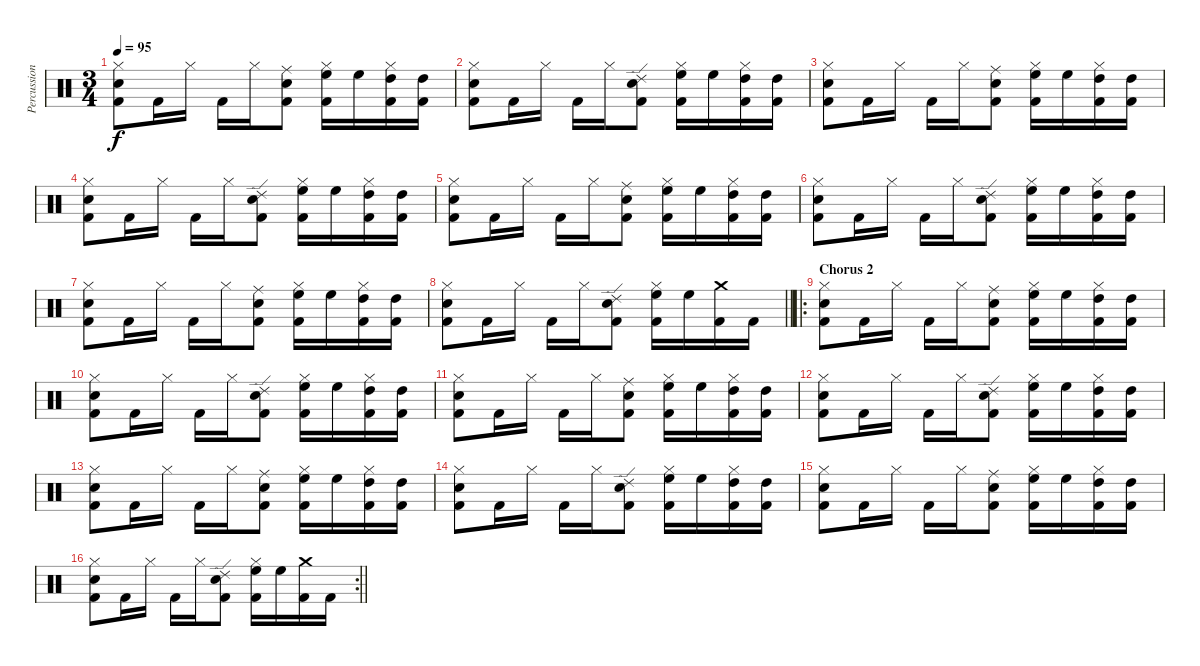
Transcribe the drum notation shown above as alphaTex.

\track ("Percussion" "Percussion") {instrument percussion}
\staff {score}
\articulation defaults
\ts (3 4)
\tempo 95
\clef neutral
\ks c
("Hi-Hat (closed)" "Snare (hit) 2" "Kick (hit) 2").8{dy f} "Kick (hit) 2".16 "Hi-Hat (closed)".16 "Kick (hit) 2".16 "Hi-Hat (closed)".16 ("Ride (middle)" "Snare (hit) 2" "Kick (hit) 2").8 ("Hi-Hat (closed)" "High Floor Tom (hit)" "Kick (hit) 2").16 "High Floor Tom (hit)".16 ("Hi-Hat (closed)" "High Tom (hit)" "Kick (hit) 2").16 ("High Tom (hit)" "Kick (hit) 2").16 |
("Hi-Hat (closed)" "Snare (hit) 2" "Kick (hit) 2").8 "Kick (hit) 2".16 "Hi-Hat (closed)".16 "Kick (hit) 2".16 "Hi-Hat (closed)".16 ("Ride (edge) 2" "Snare (hit) 2" "Kick (hit) 2").8 ("Hi-Hat (closed)" "High Floor Tom (hit)" "Kick (hit) 2").16 "High Floor Tom (hit)".16 ("Hi-Hat (closed)" "High Tom (hit)" "Kick (hit) 2").16 ("High Tom (hit)" "Kick (hit) 2").16 |
("Hi-Hat (closed)" "Snare (hit) 2" "Kick (hit) 2").8 "Kick (hit) 2".16 "Hi-Hat (closed)".16 "Kick (hit) 2".16 "Hi-Hat (closed)".16 ("Ride (middle)" "Snare (hit) 2" "Kick (hit) 2").8 ("Hi-Hat (closed)" "High Floor Tom (hit)" "Kick (hit) 2").16 "High Floor Tom (hit)".16 ("Hi-Hat (closed)" "High Tom (hit)" "Kick (hit) 2").16 ("High Tom (hit)" "Kick (hit) 2").16 |
("Hi-Hat (closed)" "Snare (hit) 2" "Kick (hit) 2").8 "Kick (hit) 2".16 "Hi-Hat (closed)".16 "Kick (hit) 2".16 "Hi-Hat (closed)".16 ("Ride (edge) 2" "Snare (hit) 2" "Kick (hit) 2").8 ("Hi-Hat (closed)" "High Floor Tom (hit)" "Kick (hit) 2").16 "High Floor Tom (hit)".16 ("Hi-Hat (closed)" "High Tom (hit)" "Kick (hit) 2").16 ("High Tom (hit)" "Kick (hit) 2").16 |
("Hi-Hat (closed)" "Snare (hit) 2" "Kick (hit) 2").8 "Kick (hit) 2".16 "Hi-Hat (closed)".16 "Kick (hit) 2".16 "Hi-Hat (closed)".16 ("Ride (middle)" "Snare (hit) 2" "Kick (hit) 2").8 ("Hi-Hat (closed)" "High Floor Tom (hit)" "Kick (hit) 2").16 "High Floor Tom (hit)".16 ("Hi-Hat (closed)" "High Tom (hit)" "Kick (hit) 2").16 ("High Tom (hit)" "Kick (hit) 2").16 |
("Hi-Hat (closed)" "Snare (hit) 2" "Kick (hit) 2").8 "Kick (hit) 2".16 "Hi-Hat (closed)".16 "Kick (hit) 2".16 "Hi-Hat (closed)".16 ("Ride (edge) 2" "Snare (hit) 2" "Kick (hit) 2").8 ("Hi-Hat (closed)" "High Floor Tom (hit)" "Kick (hit) 2").16 "High Floor Tom (hit)".16 ("Hi-Hat (closed)" "High Tom (hit)" "Kick (hit) 2").16 ("High Tom (hit)" "Kick (hit) 2").16 |
("Hi-Hat (closed)" "Snare (hit) 2" "Kick (hit) 2").8 "Kick (hit) 2".16 "Hi-Hat (closed)".16 "Kick (hit) 2".16 "Hi-Hat (closed)".16 ("Ride (middle)" "Snare (hit) 2" "Kick (hit) 2").8 ("Hi-Hat (closed)" "High Floor Tom (hit)" "Kick (hit) 2").16 "High Floor Tom (hit)".16 ("Hi-Hat (closed)" "High Tom (hit)" "Kick (hit) 2").16 ("High Tom (hit)" "Kick (hit) 2").16 |
\barLineRight lightlight
("Hi-Hat (closed)" "Snare (hit) 2" "Kick (hit) 2").8 "Kick (hit) 2".16 "Hi-Hat (closed)".16 "Kick (hit) 2".16 "Hi-Hat (closed)".16 ("Ride (edge) 2" "Snare (hit) 2" "Kick (hit) 2").8 ("Hi-Hat (closed)" "High Floor Tom (hit)" "Kick (hit) 2").16 "High Floor Tom (hit)".16 ("Crash medium (hit)" "Kick (hit) 2").16 "Kick (hit) 2".16 |
\ro
\section ("" "Chorus 2")
("Hi-Hat (closed)" "Snare (hit) 2" "Kick (hit) 2").8 "Kick (hit) 2".16 "Hi-Hat (closed)".16 "Kick (hit) 2".16 "Hi-Hat (closed)".16 ("Ride (middle)" "Snare (hit) 2" "Kick (hit) 2").8 ("Hi-Hat (closed)" "High Floor Tom (hit)" "Kick (hit) 2").16 "High Floor Tom (hit)".16 ("Hi-Hat (closed)" "High Tom (hit)" "Kick (hit) 2").16 ("High Tom (hit)" "Kick (hit) 2").16 |
("Hi-Hat (closed)" "Snare (hit) 2" "Kick (hit) 2").8 "Kick (hit) 2".16 "Hi-Hat (closed)".16 "Kick (hit) 2".16 "Hi-Hat (closed)".16 ("Ride (edge) 2" "Snare (hit) 2" "Kick (hit) 2").8 ("Hi-Hat (closed)" "High Floor Tom (hit)" "Kick (hit) 2").16 "High Floor Tom (hit)".16 ("Hi-Hat (closed)" "High Tom (hit)" "Kick (hit) 2").16 ("High Tom (hit)" "Kick (hit) 2").16 |
("Hi-Hat (closed)" "Snare (hit) 2" "Kick (hit) 2").8 "Kick (hit) 2".16 "Hi-Hat (closed)".16 "Kick (hit) 2".16 "Hi-Hat (closed)".16 ("Ride (middle)" "Snare (hit) 2" "Kick (hit) 2").8 ("Hi-Hat (closed)" "High Floor Tom (hit)" "Kick (hit) 2").16 "High Floor Tom (hit)".16 ("Hi-Hat (closed)" "High Tom (hit)" "Kick (hit) 2").16 ("High Tom (hit)" "Kick (hit) 2").16 |
("Hi-Hat (closed)" "Snare (hit) 2" "Kick (hit) 2").8 "Kick (hit) 2".16 "Hi-Hat (closed)".16 "Kick (hit) 2".16 "Hi-Hat (closed)".16 ("Ride (edge) 2" "Snare (hit) 2" "Kick (hit) 2").8 ("Hi-Hat (closed)" "High Floor Tom (hit)" "Kick (hit) 2").16 "High Floor Tom (hit)".16 ("Hi-Hat (closed)" "High Tom (hit)" "Kick (hit) 2").16 ("High Tom (hit)" "Kick (hit) 2").16 |
("Hi-Hat (closed)" "Snare (hit) 2" "Kick (hit) 2").8 "Kick (hit) 2".16 "Hi-Hat (closed)".16 "Kick (hit) 2".16 "Hi-Hat (closed)".16 ("Ride (middle)" "Snare (hit) 2" "Kick (hit) 2").8 ("Hi-Hat (closed)" "High Floor Tom (hit)" "Kick (hit) 2").16 "High Floor Tom (hit)".16 ("Hi-Hat (closed)" "High Tom (hit)" "Kick (hit) 2").16 ("High Tom (hit)" "Kick (hit) 2").16 |
("Hi-Hat (closed)" "Snare (hit) 2" "Kick (hit) 2").8 "Kick (hit) 2".16 "Hi-Hat (closed)".16 "Kick (hit) 2".16 "Hi-Hat (closed)".16 ("Ride (edge) 2" "Snare (hit) 2" "Kick (hit) 2").8 ("Hi-Hat (closed)" "High Floor Tom (hit)" "Kick (hit) 2").16 "High Floor Tom (hit)".16 ("Hi-Hat (closed)" "High Tom (hit)" "Kick (hit) 2").16 ("High Tom (hit)" "Kick (hit) 2").16 |
("Hi-Hat (closed)" "Snare (hit) 2" "Kick (hit) 2").8 "Kick (hit) 2".16 "Hi-Hat (closed)".16 "Kick (hit) 2".16 "Hi-Hat (closed)".16 ("Ride (middle)" "Snare (hit) 2" "Kick (hit) 2").8 ("Hi-Hat (closed)" "High Floor Tom (hit)" "Kick (hit) 2").16 "High Floor Tom (hit)".16 ("Hi-Hat (closed)" "High Tom (hit)" "Kick (hit) 2").16 ("High Tom (hit)" "Kick (hit) 2").16 |
\rc 2
\barLineRight lightlight
("Hi-Hat (closed)" "Snare (hit) 2" "Kick (hit) 2").8 "Kick (hit) 2".16 "Hi-Hat (closed)".16 "Kick (hit) 2".16 "Hi-Hat (closed)".16 ("Ride (edge) 2" "Snare (hit) 2" "Kick (hit) 2").8 ("Hi-Hat (closed)" "High Floor Tom (hit)" "Kick (hit) 2").16 "High Floor Tom (hit)".16 ("Crash medium (hit)" "Kick (hit) 2").16 "Kick (hit) 2".16
